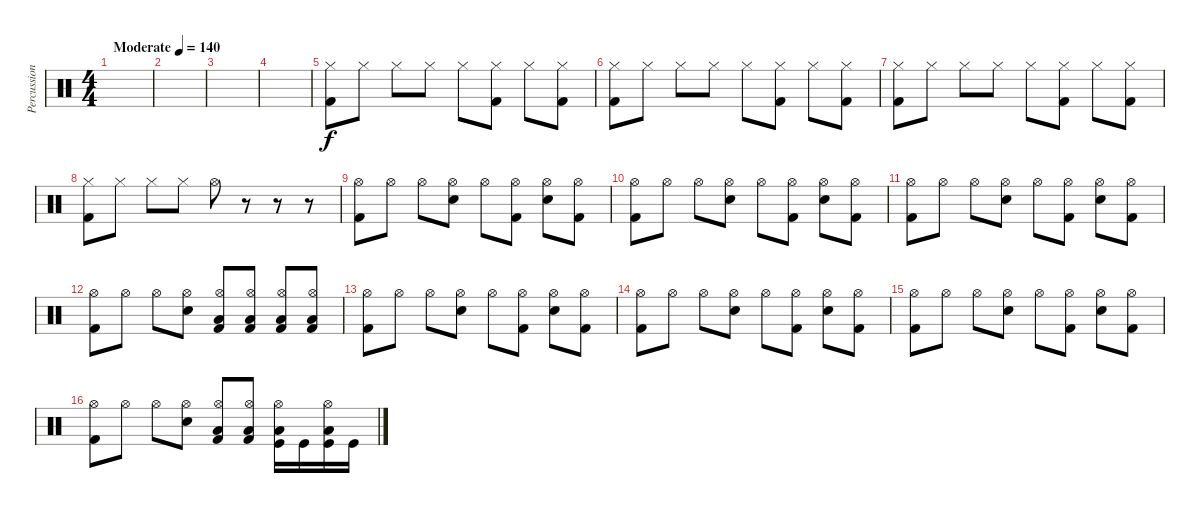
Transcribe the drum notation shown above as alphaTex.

\track ("Percussion" "Percussion") {instrument percussion}
\staff {score}
\articulation defaults
\ts (4 4)
\tempo (140 "Moderate")
\clef neutral
\ks c
|
|
|
|
("Hi-Hat (closed)" "Kick (hit) 2").8 "Hi-Hat (closed)".8 "Hi-Hat (closed)".8 "Hi-Hat (closed)".8 "Hi-Hat (closed)".8 ("Hi-Hat (closed)" "Kick (hit) 2").8 "Hi-Hat (closed)".8 ("Hi-Hat (closed)" "Kick (hit) 2").8 |
("Hi-Hat (closed)" "Kick (hit) 2").8 "Hi-Hat (closed)".8 "Hi-Hat (closed)".8 "Hi-Hat (closed)".8 "Hi-Hat (closed)".8 ("Hi-Hat (closed)" "Kick (hit) 2").8 "Hi-Hat (closed)".8 ("Hi-Hat (closed)" "Kick (hit) 2").8 |
("Hi-Hat (closed)" "Kick (hit) 2").8 "Hi-Hat (closed)".8 "Hi-Hat (closed)".8 "Hi-Hat (closed)".8 "Hi-Hat (closed)".8 ("Hi-Hat (closed)" "Kick (hit) 2").8 "Hi-Hat (closed)".8 ("Hi-Hat (closed)" "Kick (hit) 2").8 |
("Hi-Hat (closed)" "Kick (hit) 2").8 "Hi-Hat (closed)".8 "Hi-Hat (closed)".8 "Hi-Hat (closed)".8 "Hi-Hat (open)".8 r.8 r.8 r.8 |
("Hi-Hat (open)" "Kick (hit) 2").8 "Hi-Hat (open)".8 "Hi-Hat (open)".8 ("Hi-Hat (open)" "Electric Snare (hit)").8 "Hi-Hat (open)".8 ("Hi-Hat (open)" "Kick (hit) 2").8 ("Hi-Hat (open)" "Electric Snare (hit)").8 ("Hi-Hat (open)" "Kick (hit) 2").8 |
("Hi-Hat (open)" "Kick (hit) 2").8 "Hi-Hat (open)".8 "Hi-Hat (open)".8 ("Hi-Hat (open)" "Electric Snare (hit)").8 "Hi-Hat (open)".8 ("Hi-Hat (open)" "Kick (hit) 2").8 ("Hi-Hat (open)" "Electric Snare (hit)").8 ("Hi-Hat (open)" "Kick (hit) 2").8 |
("Hi-Hat (open)" "Kick (hit) 2").8 "Hi-Hat (open)".8 "Hi-Hat (open)".8 ("Hi-Hat (open)" "Electric Snare (hit)").8 "Hi-Hat (open)".8 ("Hi-Hat (open)" "Kick (hit) 2").8 ("Hi-Hat (open)" "Electric Snare (hit)").8 ("Hi-Hat (open)" "Kick (hit) 2").8 |
("Hi-Hat (open)" "Kick (hit) 2").8 "Hi-Hat (open)".8 "Hi-Hat (open)".8 ("Hi-Hat (open)" "Electric Snare (hit)").8 ("Hi-Hat (open)" "Low Floor Tom (hit)" "Kick (hit) 2").8 ("Hi-Hat (open)" "Low Floor Tom (hit)" "Kick (hit) 2").8 ("Hi-Hat (open)" "Low Floor Tom (hit)" "Kick (hit) 2").8 ("Hi-Hat (open)" "Low Floor Tom (hit)" "Kick (hit) 2").8 |
("Hi-Hat (open)" "Kick (hit) 2").8 "Hi-Hat (open)".8 "Hi-Hat (open)".8 ("Hi-Hat (open)" "Electric Snare (hit)").8 "Hi-Hat (open)".8 ("Hi-Hat (open)" "Kick (hit) 2").8 ("Hi-Hat (open)" "Electric Snare (hit)").8 ("Hi-Hat (open)" "Kick (hit) 2").8 |
("Hi-Hat (open)" "Kick (hit) 2").8 "Hi-Hat (open)".8 "Hi-Hat (open)".8 ("Hi-Hat (open)" "Electric Snare (hit)").8 "Hi-Hat (open)".8 ("Hi-Hat (open)" "Kick (hit) 2").8 ("Hi-Hat (open)" "Electric Snare (hit)").8 ("Hi-Hat (open)" "Kick (hit) 2").8 |
("Hi-Hat (open)" "Kick (hit) 2").8 "Hi-Hat (open)".8 "Hi-Hat (open)".8 ("Hi-Hat (open)" "Electric Snare (hit)").8 "Hi-Hat (open)".8 ("Hi-Hat (open)" "Kick (hit) 2").8 ("Hi-Hat (open)" "Electric Snare (hit)").8 ("Hi-Hat (open)" "Kick (hit) 2").8 |
("Hi-Hat (open)" "Kick (hit) 2").8 "Hi-Hat (open)".8 "Hi-Hat (open)".8 ("Hi-Hat (open)" "Electric Snare (hit)").8 ("Hi-Hat (open)" "Low Floor Tom (hit)" "Kick (hit) 2").8 ("Hi-Hat (open)" "Low Floor Tom (hit)" "Kick (hit) 2").8 ("Hi-Hat (open)" "Low Floor Tom (hit)" "Kick (hit)").16 "Kick (hit)".16 ("Hi-Hat (open)" "Low Floor Tom (hit)" "Kick (hit)").16 "Kick (hit)".16
